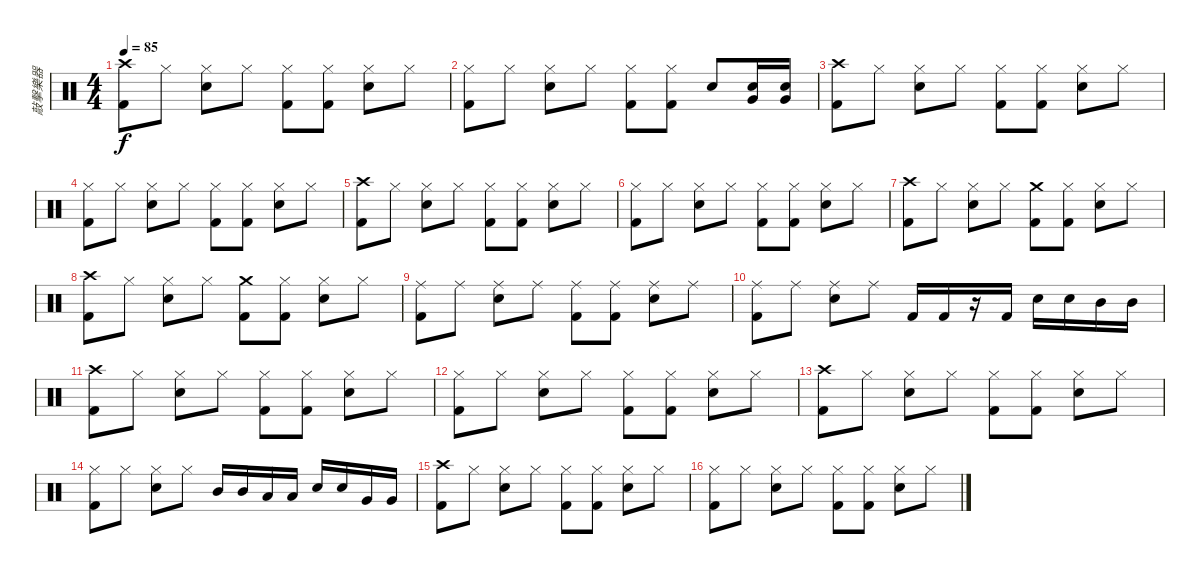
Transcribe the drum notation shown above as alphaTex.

\track ("敲擊樂器" "敲擊樂器") {instrument percussion}
\staff {score}
\articulation defaults
\ts (4 4)
\tempo 85
\clef neutral
\ks c
("Crash high (hit)" "Kick (hit) 2").8{dy f} "Hi-Hat (closed)".8 ("Hi-Hat (closed)" "Snare (hit) 2").8 "Hi-Hat (closed)".8 ("Hi-Hat (closed)" "Kick (hit) 2").8 ("Hi-Hat (closed)" "Kick (hit) 2").8 ("Hi-Hat (closed)" "Snare (hit) 2").8 "Hi-Hat (closed)".8 |
("Hi-Hat (closed)" "Kick (hit) 2").8 "Hi-Hat (closed)".8 ("Hi-Hat (closed)" "Snare (hit) 2").8 "Hi-Hat (closed)".8 ("Hi-Hat (closed)" "Kick (hit) 2").8 ("Hi-Hat (closed)" "Kick (hit) 2").8 "Snare (hit) 2".8 ("Snare (hit) 2" "Very Low Tom (hit)").16 ("Snare (hit) 2" "Very Low Tom (hit)").16 |
("Crash high (hit)" "Kick (hit) 2").8 "Hi-Hat (closed)".8 ("Hi-Hat (closed)" "Snare (hit) 2").8 "Hi-Hat (closed)".8 ("Hi-Hat (closed)" "Kick (hit) 2").8 ("Hi-Hat (closed)" "Kick (hit) 2").8 ("Hi-Hat (closed)" "Snare (hit) 2").8 "Hi-Hat (closed)".8 |
("Hi-Hat (closed)" "Kick (hit) 2").8 "Hi-Hat (closed)".8 ("Hi-Hat (closed)" "Snare (hit) 2").8 "Hi-Hat (closed)".8 ("Hi-Hat (closed)" "Kick (hit) 2").8 ("Hi-Hat (closed)" "Kick (hit) 2").8 ("Hi-Hat (closed)" "Snare (hit) 2").8 "Hi-Hat (closed)".8 |
("Crash high (hit)" "Kick (hit) 2").8 "Hi-Hat (closed)".8 ("Hi-Hat (closed)" "Snare (hit) 2").8 "Hi-Hat (closed)".8 ("Hi-Hat (closed)" "Kick (hit) 2").8 ("Hi-Hat (closed)" "Kick (hit) 2").8 ("Hi-Hat (closed)" "Snare (hit) 2").8 "Hi-Hat (closed)".8 |
("Hi-Hat (closed)" "Kick (hit) 2").8 "Hi-Hat (closed)".8 ("Hi-Hat (closed)" "Snare (hit) 2").8 "Hi-Hat (closed)".8 ("Hi-Hat (closed)" "Kick (hit) 2").8 ("Hi-Hat (closed)" "Kick (hit) 2").8 ("Hi-Hat (closed)" "Snare (hit) 2").8 "Hi-Hat (closed)".8 |
("Crash high (hit)" "Kick (hit) 2").8 "Hi-Hat (closed)".8 ("Hi-Hat (closed)" "Snare (hit) 2").8 "Hi-Hat (closed)".8 ("Crash medium (hit)" "Kick (hit) 2").8 ("Hi-Hat (closed)" "Kick (hit) 2").8 ("Hi-Hat (closed)" "Snare (hit) 2").8 "Hi-Hat (closed)".8 |
("Crash high (hit)" "Kick (hit) 2").8 "Hi-Hat (closed)".8 ("Hi-Hat (closed)" "Snare (hit) 2").8 "Hi-Hat (closed)".8 ("Crash medium (hit)" "Kick (hit) 2").8 ("Hi-Hat (closed)" "Kick (hit) 2").8 ("Hi-Hat (closed)" "Snare (hit) 2").8 "Hi-Hat (closed)".8 |
("Ride (middle)" "Kick (hit) 2").8 "Ride (middle)".8 ("Ride (middle)" "Snare (hit) 2").8 "Ride (middle)".8 ("Ride (middle)" "Kick (hit) 2").8 ("Ride (middle)" "Kick (hit) 2").8 ("Ride (middle)" "Snare (hit) 2").8 "Ride (middle)".8 |
("Ride (middle)" "Kick (hit) 2").8 "Ride (middle)".8 ("Ride (middle)" "Snare (hit) 2").8 "Ride (middle)".8 "Kick (hit) 2".16 "Kick (hit) 2".16 r.16 "Kick (hit) 2".16 "Snare (hit) 2".16 "Snare (hit) 2".16 "Mid Tom (hit)".16 "Mid Tom (hit)".16 |
("Crash high (hit)" "Kick (hit) 2").8 "Hi-Hat (closed)".8 ("Hi-Hat (closed)" "Snare (hit) 2").8 "Hi-Hat (closed)".8 ("Hi-Hat (closed)" "Kick (hit) 2").8 ("Hi-Hat (closed)" "Kick (hit) 2").8 ("Hi-Hat (closed)" "Snare (hit) 2").8 "Hi-Hat (closed)".8 |
("Hi-Hat (closed)" "Kick (hit) 2").8 "Hi-Hat (closed)".8 ("Hi-Hat (closed)" "Snare (hit) 2").8 "Hi-Hat (closed)".8 ("Hi-Hat (closed)" "Kick (hit) 2").8 ("Hi-Hat (closed)" "Kick (hit) 2").8 ("Hi-Hat (closed)" "Snare (hit) 2").8 "Hi-Hat (closed)".8 |
("Crash high (hit)" "Kick (hit) 2").8 "Hi-Hat (closed)".8 ("Hi-Hat (closed)" "Snare (hit) 2").8 "Hi-Hat (closed)".8 ("Hi-Hat (closed)" "Kick (hit) 2").8 ("Hi-Hat (closed)" "Kick (hit) 2").8 ("Hi-Hat (closed)" "Snare (hit) 2").8 "Hi-Hat (closed)".8 |
("Hi-Hat (closed)" "Kick (hit) 2").8 "Hi-Hat (closed)".8 ("Hi-Hat (closed)" "Snare (hit) 2").8 "Hi-Hat (closed)".8 "Mid Tom (hit)".16 "Mid Tom (hit)".16 "Low Tom (hit)".16 "Low Tom (hit)".16 "Snare (hit) 2".16 "Snare (hit) 2".16 "Very Low Tom (hit)".16 "Very Low Tom (hit)".16 |
("Crash high (hit)" "Kick (hit) 2").8 "Hi-Hat (closed)".8 ("Hi-Hat (closed)" "Snare (hit) 2").8 "Hi-Hat (closed)".8 ("Hi-Hat (closed)" "Kick (hit) 2").8 ("Hi-Hat (closed)" "Kick (hit) 2").8 ("Hi-Hat (closed)" "Snare (hit) 2").8 "Hi-Hat (closed)".8 |
("Hi-Hat (closed)" "Kick (hit) 2").8 "Hi-Hat (closed)".8 ("Hi-Hat (closed)" "Snare (hit) 2").8 "Hi-Hat (closed)".8 ("Hi-Hat (closed)" "Kick (hit) 2").8 ("Hi-Hat (closed)" "Kick (hit) 2").8 ("Hi-Hat (closed)" "Snare (hit) 2").8 "Hi-Hat (closed)".8
